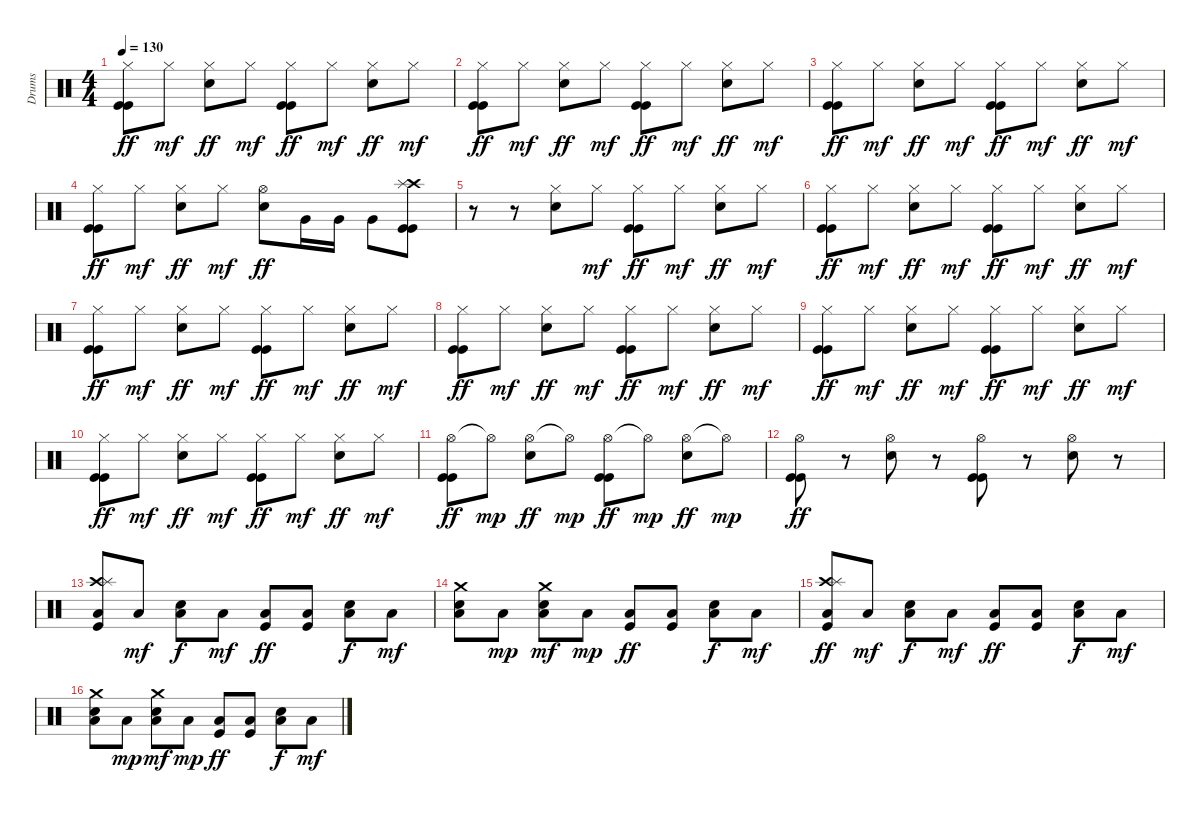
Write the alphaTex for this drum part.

\track ("Drums" "Drums") {instrument percussion}
\staff {score}
\articulation defaults
\ts (4 4)
\tempo 130
\clef neutral
\ks c
("Hi-Hat (closed)" "Kick (hit)" "Kick (hit)").8{dy ff} "Hi-Hat (closed)".8{dy mf} ("Hi-Hat (closed)" "Snare (hit) 2").8{dy ff} "Hi-Hat (closed)".8{dy mf} ("Hi-Hat (closed)" "Kick (hit)" "Kick (hit)").8{dy ff} "Hi-Hat (closed)".8{dy mf} ("Hi-Hat (closed)" "Snare (hit) 2").8{dy ff} "Hi-Hat (closed)".8{dy mf} |
("Hi-Hat (closed)" "Kick (hit)" "Kick (hit)").8{dy ff} "Hi-Hat (closed)".8{dy mf} ("Hi-Hat (closed)" "Snare (hit) 2").8{dy ff} "Hi-Hat (closed)".8{dy mf} ("Hi-Hat (closed)" "Kick (hit)" "Kick (hit)").8{dy ff} "Hi-Hat (closed)".8{dy mf} ("Hi-Hat (closed)" "Snare (hit) 2").8{dy ff} "Hi-Hat (closed)".8{dy mf} |
("Hi-Hat (closed)" "Kick (hit)" "Kick (hit)").8{dy ff} "Hi-Hat (closed)".8{dy mf} ("Hi-Hat (closed)" "Snare (hit) 2").8{dy ff} "Hi-Hat (closed)".8{dy mf} ("Hi-Hat (closed)" "Kick (hit)" "Kick (hit)").8{dy ff} "Hi-Hat (closed)".8{dy mf} ("Hi-Hat (closed)" "Snare (hit) 2").8{dy ff} "Hi-Hat (closed)".8{dy mf} |
("Hi-Hat (closed)" "Kick (hit)" "Kick (hit)").8{dy ff} "Hi-Hat (closed)".8{dy mf} ("Hi-Hat (closed)" "Snare (hit) 2").8{dy ff} "Hi-Hat (closed)".8{dy mf} ("Hi-Hat (open)" "Snare (hit) 2").8{dy ff} "Very Low Tom (hit)".16 "Very Low Tom (hit)".16 "Very Low Tom (hit)".8 ("Crash high (hit)" "Splash (hit)" "Kick (hit)" "Kick (hit)").8 |
r.8 r.8 ("Hi-Hat (closed)" "Snare (hit) 2").8 "Hi-Hat (closed)".8{dy mf} ("Hi-Hat (closed)" "Kick (hit)" "Kick (hit)").8{dy ff} "Hi-Hat (closed)".8{dy mf} ("Hi-Hat (closed)" "Snare (hit) 2").8{dy ff} "Hi-Hat (closed)".8{dy mf} |
("Hi-Hat (closed)" "Kick (hit)" "Kick (hit)").8{dy ff} "Hi-Hat (closed)".8{dy mf} ("Hi-Hat (closed)" "Snare (hit) 2").8{dy ff} "Hi-Hat (closed)".8{dy mf} ("Hi-Hat (closed)" "Kick (hit)" "Kick (hit)").8{dy ff} "Hi-Hat (closed)".8{dy mf} ("Hi-Hat (closed)" "Snare (hit) 2").8{dy ff} "Hi-Hat (closed)".8{dy mf} |
("Hi-Hat (closed)" "Kick (hit)" "Kick (hit)").8{dy ff} "Hi-Hat (closed)".8{dy mf} ("Hi-Hat (closed)" "Snare (hit) 2").8{dy ff} "Hi-Hat (closed)".8{dy mf} ("Hi-Hat (closed)" "Kick (hit)" "Kick (hit)").8{dy ff} "Hi-Hat (closed)".8{dy mf} ("Hi-Hat (closed)" "Snare (hit) 2").8{dy ff} "Hi-Hat (closed)".8{dy mf} |
("Hi-Hat (closed)" "Kick (hit)" "Kick (hit)").8{dy ff} "Hi-Hat (closed)".8{dy mf} ("Hi-Hat (closed)" "Snare (hit) 2").8{dy ff} "Hi-Hat (closed)".8{dy mf} ("Hi-Hat (closed)" "Kick (hit)" "Kick (hit)").8{dy ff} "Hi-Hat (closed)".8{dy mf} ("Hi-Hat (closed)" "Snare (hit) 2").8{dy ff} "Hi-Hat (closed)".8{dy mf} |
("Hi-Hat (closed)" "Kick (hit)" "Kick (hit)").8{dy ff} "Hi-Hat (closed)".8{dy mf} ("Hi-Hat (closed)" "Snare (hit) 2").8{dy ff} "Hi-Hat (closed)".8{dy mf} ("Hi-Hat (closed)" "Kick (hit)" "Kick (hit)").8{dy ff} "Hi-Hat (closed)".8{dy mf} ("Hi-Hat (closed)" "Snare (hit) 2").8{dy ff} "Hi-Hat (closed)".8{dy mf} |
("Hi-Hat (closed)" "Kick (hit)" "Kick (hit)").8{dy ff} "Hi-Hat (closed)".8{dy mf} ("Hi-Hat (closed)" "Snare (hit) 2").8{dy ff} "Hi-Hat (closed)".8{dy mf} ("Hi-Hat (closed)" "Kick (hit)" "Kick (hit)").8{dy ff} "Hi-Hat (closed)".8{dy mf} ("Hi-Hat (closed)" "Snare (hit) 2").8{dy ff} "Hi-Hat (closed)".8{dy mf} |
("Hi-Hat (open)" "Kick (hit)" "Kick (hit)").8{dy ff} "Hi-Hat (open)"{t}.8{dy mp} ("Hi-Hat (open)" "Snare (hit) 2").8{dy ff} "Hi-Hat (open)"{t}.8{dy mp} ("Hi-Hat (open)" "Kick (hit)" "Kick (hit)").8{dy ff} "Hi-Hat (open)"{t}.8{dy mp} ("Hi-Hat (open)" "Snare (hit) 2").8{dy ff} "Hi-Hat (open)"{t}.8{dy mp} |
("Hi-Hat (open)" "Kick (hit)" "Kick (hit)").8{dy ff} r.8 ("Hi-Hat (open)" "Snare (hit) 2").8 r.8 ("Hi-Hat (open)" "Kick (hit)" "Kick (hit)").8 r.8 ("Hi-Hat (open)" "Snare (hit) 2").8 r.8 |
("Crash high (hit)" "Splash (hit)" "Low Floor Tom (hit)" "Kick (hit)").8 "Low Floor Tom (hit)".8{dy mf} ("Snare (hit) 2" "Low Floor Tom (hit)").8{dy f} "Low Floor Tom (hit)".8{dy mf} ("Low Floor Tom (hit)" "Kick (hit)").8{dy ff} ("Low Floor Tom (hit)" "Kick (hit)").8 ("Snare (hit) 2" "Low Floor Tom (hit)").8{dy f} "Low Floor Tom (hit)".8{dy mf} |
("Crash medium (hit)" "Snare (hit) 2" "Low Floor Tom (hit)").8 "Low Floor Tom (hit)".8{dy mp} ("Crash medium (hit)" "Snare (hit) 2" "Low Floor Tom (hit)").8{dy mf} "Low Floor Tom (hit)".8{dy mp} ("Low Floor Tom (hit)" "Kick (hit)").8{dy ff} ("Low Floor Tom (hit)" "Kick (hit)").8 ("Snare (hit) 2" "Low Floor Tom (hit)").8{dy f} "Low Floor Tom (hit)".8{dy mf} |
("Crash high (hit)" "Splash (hit)" "Low Floor Tom (hit)" "Kick (hit)").8{dy ff} "Low Floor Tom (hit)".8{dy mf} ("Snare (hit) 2" "Low Floor Tom (hit)").8{dy f} "Low Floor Tom (hit)".8{dy mf} ("Low Floor Tom (hit)" "Kick (hit)").8{dy ff} ("Low Floor Tom (hit)" "Kick (hit)").8 ("Snare (hit) 2" "Low Floor Tom (hit)").8{dy f} "Low Floor Tom (hit)".8{dy mf} |
("Crash medium (hit)" "Snare (hit) 2" "Low Floor Tom (hit)").8 "Low Floor Tom (hit)".8{dy mp} ("Crash medium (hit)" "Snare (hit) 2" "Low Floor Tom (hit)").8{dy mf} "Low Floor Tom (hit)".8{dy mp} ("Low Floor Tom (hit)" "Kick (hit)").8{dy ff} ("Low Floor Tom (hit)" "Kick (hit)").8 ("Snare (hit) 2" "Low Floor Tom (hit)").8{dy f} "Low Floor Tom (hit)".8{dy mf}
